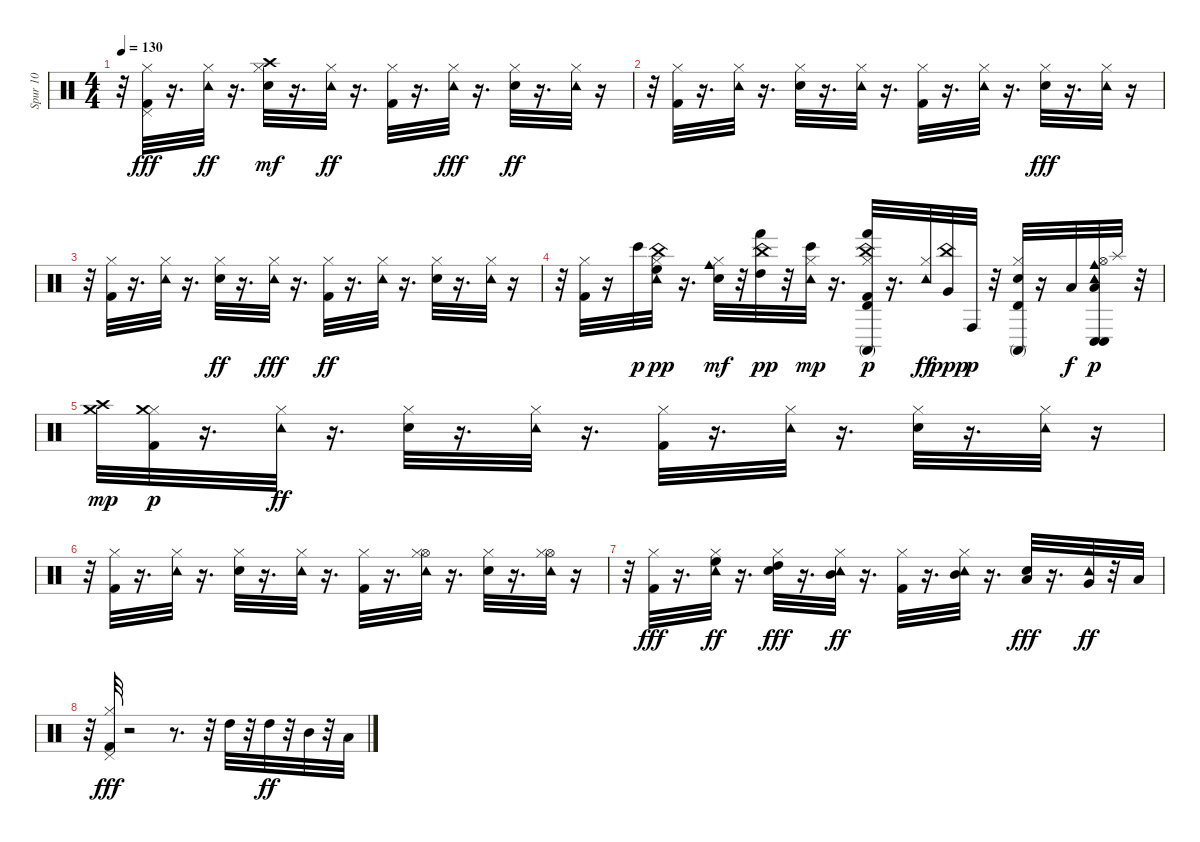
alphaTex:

\track ("Spur 10" "Spur 10") {instrument percussion}
\staff {score}
\articulation defaults
\ts (4 4)
\tempo 130
\clef neutral
\ks c
r.32{dy fff} ("Kick (hit) 2" "Hi-Hat (closed)" "Pedal Hi-Hat (hit)").32 r.16{d} ("Tambourine (hit)" "Hi-Hat (closed)").32{dy ff} r.16{d} ("Electric Snare (hit)" "Hi-Hat (closed)" "Crash high (hit)").32{dy mf} r.16{d} ("Tambourine (hit)" "Hi-Hat (closed)").32{dy ff} r.16{d} ("Kick (hit) 2" "Hi-Hat (closed)").32 r.16{d} ("Tambourine (hit)" "Hi-Hat (closed)").32{dy fff} r.16{d} ("Electric Snare (hit)" "Hi-Hat (closed)").32{dy ff} r.16{d} ("Tambourine (hit)" "Hi-Hat (closed)").32 r.16 |
r.32 ("Kick (hit) 2" "Hi-Hat (closed)").32 r.16{d} ("Tambourine (hit)" "Hi-Hat (closed)").32 r.16{d} ("Electric Snare (hit)" "Hi-Hat (closed)").32 r.16{d} ("Tambourine (hit)" "Hi-Hat (closed)").32 r.16{d} ("Kick (hit) 2" "Hi-Hat (closed)").32 r.16{d} ("Tambourine (hit)" "Hi-Hat (closed)").32 r.16{d} ("Electric Snare (hit)" "Hi-Hat (closed)").32{dy fff} r.16{d} ("Tambourine (hit)" "Hi-Hat (closed)").32 r.16 |
r.32 ("Kick (hit) 2" "Hi-Hat (closed)").32 r.16{d} ("Tambourine (hit)" "Hi-Hat (closed)").32 r.16{d} ("Electric Snare (hit)" "Hi-Hat (closed)").32{dy ff} r.16{d} ("Tambourine (hit)" "Hi-Hat (closed)").32{dy fff} r.16{d} ("Kick (hit) 2" "Hi-Hat (closed)").32{dy ff} r.16{d} ("Tambourine (hit)" "Hi-Hat (closed)").32 r.16{d} ("Electric Snare (hit)" "Hi-Hat (closed)").32 r.16{d} ("Tambourine (hit)" "Hi-Hat (closed)").32 r.16 |
r.32 ("Kick (hit) 2" "Hi-Hat (closed)").32 r.16 "Bongo High (hit)".32{dy p} ("Tambourine (hit)" "Hi-Hat (closed)" "China (hit)" "High Floor Tom (hit)").32{dy pp} r.16{d} ("Electric Snare (hit)" "Hi-Hat (closed)" "Cowbell medium (hit)").32{dy mf} r.32 ("Hand (hit)" "China (hit)" "High Tom (hit)").32{dy pp} r.32 ("Tambourine (hit)" "Hi-Hat (closed)" "Bongo High (hit)").32{dy mp} r.16{d} ("China (hit)" "Kick (hit) 2" "Hi-Hat (closed)" "Hand (hit)" "Timbale high (hit)" "Conga high (mute)").32{dy p} r.16{d} ("Tambourine (hit)" "Hi-Hat (closed)").32{dy ff} ("China (hit)" "Very Low Tom (hit)").32{dy ppp} "Conga high (hit)".32{dy p} r.32 ("Electric Snare (hit)" "Hi-Hat (closed)" "Conga high (mute)" "Timbale high (hit)").32 r.16 "Low Floor Tom (hit)".32{dy f} ("Tambourine (hit)" "Hi-Hat (open)" "Low Floor Tom (hit)" "Conga low (hit)" "Cowbell medium (hit)" "Conga low (hit)").32{dy p} "Splash (hit)".32 r.32 |
("Crash high (hit)" "Crash medium (hit)").32{dy mp} ("Kick (hit) 2" "Hi-Hat (closed)" "Crash medium (hit)").32{dy p} r.16{d} ("Tambourine (hit)" "Hi-Hat (closed)").32{dy ff} r.16{d} ("Electric Snare (hit)" "Hi-Hat (closed)").32 r.16{d} ("Tambourine (hit)" "Hi-Hat (closed)").32 r.16{d} ("Kick (hit) 2" "Hi-Hat (closed)").32 r.16{d} ("Tambourine (hit)" "Hi-Hat (closed)").32 r.16{d} ("Electric Snare (hit)" "Hi-Hat (closed)").32 r.16{d} ("Tambourine (hit)" "Hi-Hat (closed)").32 r.16 |
r.32 ("Kick (hit) 2" "Hi-Hat (closed)").32 r.16{d} ("Tambourine (hit)" "Hi-Hat (closed)").32 r.16{d} ("Electric Snare (hit)" "Hi-Hat (closed)").32 r.16{d} ("Tambourine (hit)" "Hi-Hat (closed)").32 r.16{d} ("Kick (hit) 2" "Hi-Hat (closed)").32 r.16{d} ("Tambourine (hit)" "Hi-Hat (open)" "Hi-Hat (closed)").32 r.16{d} ("Electric Snare (hit)" "Hi-Hat (closed)").32 r.16{d} ("Tambourine (hit)" "Hi-Hat (open)" "Hi-Hat (closed)").32 r.16 |
r.32 ("Kick (hit) 2" "Hi-Hat (closed)").32{dy fff} r.16{d} ("Tambourine (hit)" "Hi-Hat (closed)" "High Floor Tom (hit)").32{dy ff} r.16{d} ("Hi-Hat (closed)" "High Tom (hit)" "Electric Snare (hit)").32{dy fff} r.16{d} ("Tambourine (hit)" "Hi-Hat (closed)" "Mid Tom (hit)").32{dy ff} r.16{d} ("Kick (hit) 2" "Hi-Hat (closed)").32 r.16{d} ("Tambourine (hit)" "Hi-Hat (closed)" "Mid Tom (hit)").32 r.16{d} ("Low Tom (hit)" "Electric Snare (hit)").32{dy fff} r.16{d} ("Tambourine (hit)" "Very Low Tom (hit)").32{dy ff} r.32 "Low Floor Tom (hit)".32 |
r.32 ("Kick (hit) 2" "Hi-Hat (closed)" "Pedal Hi-Hat (hit)").32{dy fff} r.2 r.8{d} r.32 "High Tom (hit)".32 r.32 "High Tom (hit)".32{dy ff} r.32 "Mid Tom (hit)".32 r.32 "Low Tom (hit)".32
